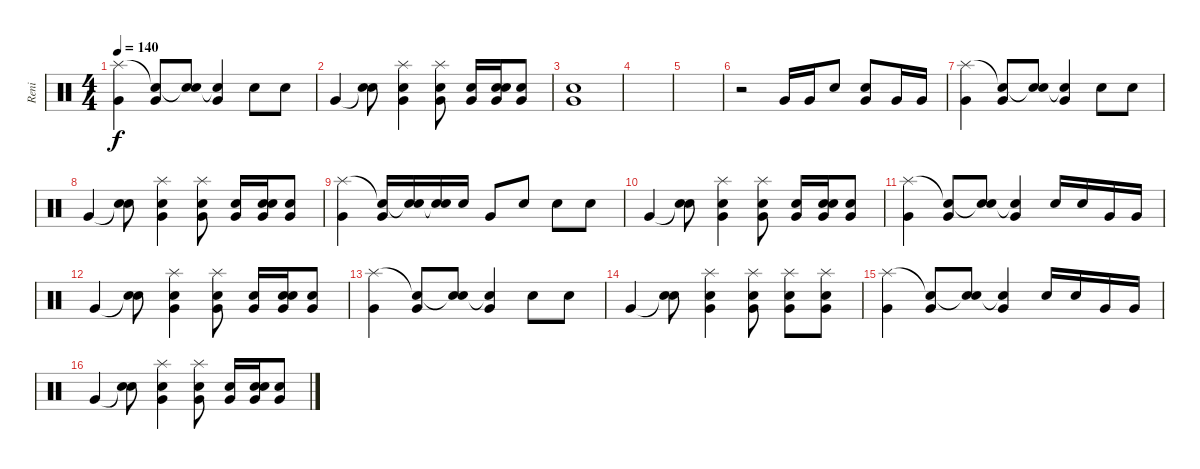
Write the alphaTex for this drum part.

\track ("Reni" "Reni") {instrument percussion}
\staff {score}
\articulation defaults
\ts (4 4)
\tempo 140
\clef neutral
\ks c
("Splash (hit)" "Very Low Tom (hit)").4{dy f} ("Snare (hit)"{t} "Very Low Tom (hit)").8 ("Snare (hit)"{t} "Electric Snare (hit)").8 ("Snare (hit)"{t} "Very Low Tom (hit)").4 "Snare (hit) 2".8 "Electric Snare (hit)".8 |
"Very Low Tom (hit)".4 ("Snare (hit)"{t} "Snare (hit) 2").8 ("Splash (hit)" "Electric Snare (hit)" "Very Low Tom (hit)").4 ("Splash (hit)" "Electric Snare (hit)" "Very Low Tom (hit)").8 ("Snare (hit) 2" "Very Low Tom (hit)").16 ("Electric Snare (hit)" "Electric Snare (hit)" "Very Low Tom (hit)").16 ("Electric Snare (hit)" "Very Low Tom (hit)").8 |
("Electric Snare (hit)" "Very Low Tom (hit)").1 |
|
|
r.2 "Very Low Tom (hit)".16 "Very Low Tom (hit)".16 "Electric Snare (hit)".8 ("Snare (hit) 2" "Very Low Tom (hit)").8 "Very Low Tom (hit)".16 "Very Low Tom (hit)".16 |
("Splash (hit)" "Very Low Tom (hit)").4 ("Snare (hit)"{t} "Very Low Tom (hit)").8 ("Snare (hit)"{t} "Electric Snare (hit)").8 ("Snare (hit)"{t} "Very Low Tom (hit)").4 "Snare (hit) 2".8 "Electric Snare (hit)".8 |
"Very Low Tom (hit)".4 ("Snare (hit)"{t} "Snare (hit) 2").8 ("Splash (hit)" "Electric Snare (hit)" "Very Low Tom (hit)").4 ("Splash (hit)" "Electric Snare (hit)" "Very Low Tom (hit)").8 ("Snare (hit) 2" "Very Low Tom (hit)").16 ("Electric Snare (hit)" "Electric Snare (hit)" "Very Low Tom (hit)").16 ("Electric Snare (hit)" "Very Low Tom (hit)").8 |
("Splash (hit)" "Very Low Tom (hit)").4 ("Snare (hit)"{t} "Very Low Tom (hit)").16 ("Snare (hit)"{t} "Electric Snare (hit)").16 ("Snare (hit)"{t} "Snare (hit) 2").16 "Snare (hit) 2".16 "Very Low Tom (hit)".8 "Electric Snare (hit)".8 "Snare (hit) 2".8 "Snare (hit) 2".8 |
"Very Low Tom (hit)".4 ("Snare (hit)"{t} "Snare (hit) 2").8 ("Splash (hit)" "Electric Snare (hit)" "Very Low Tom (hit)").4 ("Splash (hit)" "Electric Snare (hit)" "Very Low Tom (hit)").8 ("Snare (hit) 2" "Very Low Tom (hit)").16 ("Electric Snare (hit)" "Electric Snare (hit)" "Very Low Tom (hit)").16 ("Electric Snare (hit)" "Very Low Tom (hit)").8 |
("Splash (hit)" "Very Low Tom (hit)").4 ("Snare (hit)"{t} "Very Low Tom (hit)").8 ("Snare (hit)"{t} "Electric Snare (hit)").8 ("Snare (hit)"{t} "Very Low Tom (hit)").4 "Snare (hit) 2".16 "Electric Snare (hit)".16 "Very Low Tom (hit)".16 "Very Low Tom (hit)".16 |
"Very Low Tom (hit)".4 ("Snare (hit)"{t} "Snare (hit) 2").8 ("Splash (hit)" "Electric Snare (hit)" "Very Low Tom (hit)").4 ("Splash (hit)" "Electric Snare (hit)" "Very Low Tom (hit)").8 ("Snare (hit) 2" "Very Low Tom (hit)").16 ("Electric Snare (hit)" "Electric Snare (hit)" "Very Low Tom (hit)").16 ("Electric Snare (hit)" "Very Low Tom (hit)").8 |
("Splash (hit)" "Very Low Tom (hit)").4 ("Snare (hit)"{t} "Very Low Tom (hit)").8 ("Snare (hit)"{t} "Electric Snare (hit)").8 ("Snare (hit)"{t} "Very Low Tom (hit)").4 "Snare (hit) 2".8 "Electric Snare (hit)".8 |
"Very Low Tom (hit)".4 ("Snare (hit)"{t} "Snare (hit) 2").8 ("Splash (hit)" "Electric Snare (hit)" "Very Low Tom (hit)").4 ("Splash (hit)" "Electric Snare (hit)" "Very Low Tom (hit)").8 ("Splash (hit)" "Snare (hit) 2" "Very Low Tom (hit)").8 ("Splash (hit)" "Electric Snare (hit)" "Very Low Tom (hit)").8 |
("Splash (hit)" "Very Low Tom (hit)").4 ("Snare (hit)"{t} "Very Low Tom (hit)").8 ("Snare (hit)"{t} "Electric Snare (hit)").8 ("Snare (hit)"{t} "Very Low Tom (hit)").4 "Snare (hit) 2".16 "Electric Snare (hit)".16 "Very Low Tom (hit)".16 "Very Low Tom (hit)".16 |
"Very Low Tom (hit)".4 ("Snare (hit)"{t} "Snare (hit) 2").8 ("Splash (hit)" "Electric Snare (hit)" "Very Low Tom (hit)").4 ("Splash (hit)" "Electric Snare (hit)" "Very Low Tom (hit)").8 ("Snare (hit) 2" "Very Low Tom (hit)").16 ("Electric Snare (hit)" "Electric Snare (hit)" "Very Low Tom (hit)").16 ("Electric Snare (hit)" "Very Low Tom (hit)").8
